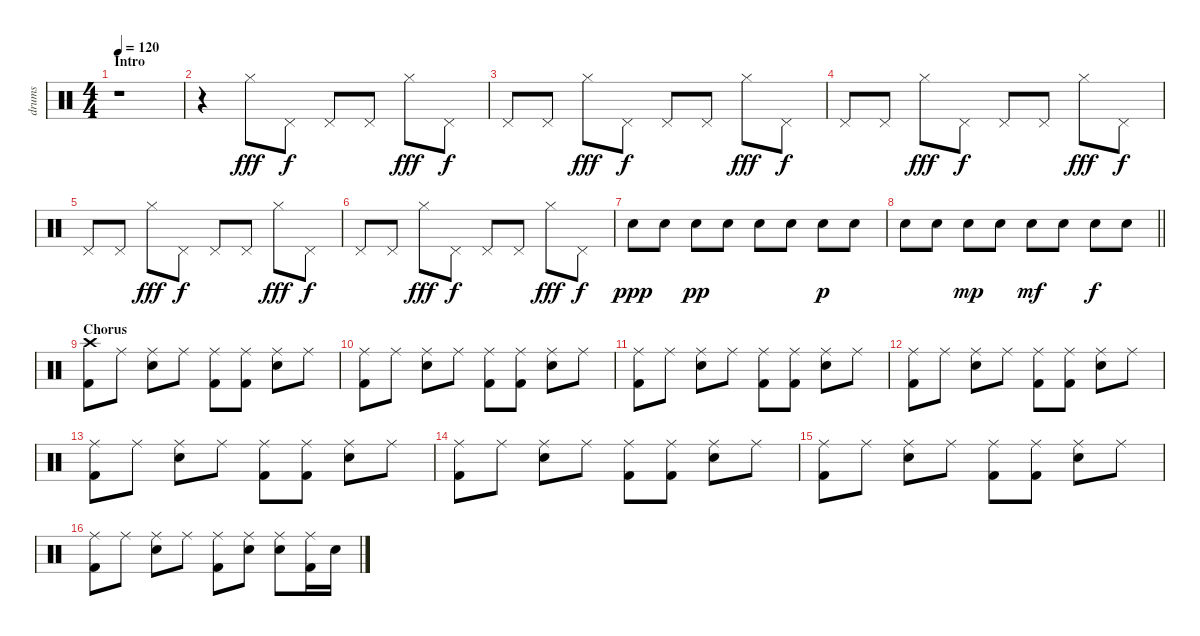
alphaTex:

\track ("drums" "drums") {instrument percussion}
\staff {score}
\articulation defaults
\ts (4 4)
\section ("" "Intro")
\tempo 120
\clef neutral
\ks c
r.1{dy fff} |
r.4 "Hi-Hat (closed)".8 "Pedal Hi-Hat (hit)".8{dy f} "Pedal Hi-Hat (hit)".8 "Pedal Hi-Hat (hit)".8 "Hi-Hat (closed)".8{dy fff} "Pedal Hi-Hat (hit)".8{dy f} |
"Pedal Hi-Hat (hit)".8 "Pedal Hi-Hat (hit)".8 "Hi-Hat (closed)".8{dy fff} "Pedal Hi-Hat (hit)".8{dy f} "Pedal Hi-Hat (hit)".8 "Pedal Hi-Hat (hit)".8 "Hi-Hat (closed)".8{dy fff} "Pedal Hi-Hat (hit)".8{dy f} |
"Pedal Hi-Hat (hit)".8 "Pedal Hi-Hat (hit)".8 "Hi-Hat (closed)".8{dy fff} "Pedal Hi-Hat (hit)".8{dy f} "Pedal Hi-Hat (hit)".8 "Pedal Hi-Hat (hit)".8 "Hi-Hat (closed)".8{dy fff} "Pedal Hi-Hat (hit)".8{dy f} |
"Pedal Hi-Hat (hit)".8 "Pedal Hi-Hat (hit)".8 "Hi-Hat (closed)".8{dy fff} "Pedal Hi-Hat (hit)".8{dy f} "Pedal Hi-Hat (hit)".8 "Pedal Hi-Hat (hit)".8 "Hi-Hat (closed)".8{dy fff} "Pedal Hi-Hat (hit)".8{dy f} |
"Pedal Hi-Hat (hit)".8 "Pedal Hi-Hat (hit)".8 "Hi-Hat (closed)".8{dy fff} "Pedal Hi-Hat (hit)".8{dy f} "Pedal Hi-Hat (hit)".8 "Pedal Hi-Hat (hit)".8 "Hi-Hat (closed)".8{dy fff} "Pedal Hi-Hat (hit)".8{dy f} |
"Snare (hit) 2".8{dy ppp} "Snare (hit) 2".8 "Snare (hit) 2".8{dy pp} "Snare (hit) 2".8 "Snare (hit) 2".8 "Snare (hit) 2".8 "Snare (hit) 2".8{dy p} "Snare (hit) 2".8 |
\barLineRight lightlight "Snare (hit) 2".8 "Snare (hit) 2".8 "Snare (hit) 2".8{dy mp} "Snare (hit) 2".8 "Snare (hit) 2".8{dy mf} "Snare (hit) 2".8 "Snare (hit) 2".8{dy f} "Snare (hit) 2".8
|
\section ("" "Chorus")
("Crash high (hit)" "Kick (hit) 2").8 "Ride (middle)".8 ("Ride (middle)" "Snare (hit) 2").8 "Ride (middle)".8 ("Ride (middle)" "Kick (hit) 2").8 ("Ride (middle)" "Kick (hit) 2").8 ("Ride (middle)" "Snare (hit) 2").8 "Ride (middle)".8 |
("Ride (middle)" "Kick (hit) 2").8 "Ride (middle)".8 ("Ride (middle)" "Snare (hit) 2").8 "Ride (middle)".8 ("Ride (middle)" "Kick (hit) 2").8 ("Ride (middle)" "Kick (hit) 2").8 ("Ride (middle)" "Snare (hit) 2").8 "Ride (middle)".8 |
("Ride (middle)" "Kick (hit) 2").8 "Ride (middle)".8 ("Ride (middle)" "Snare (hit) 2").8 "Ride (middle)".8 ("Ride (middle)" "Kick (hit) 2").8 ("Ride (middle)" "Kick (hit) 2").8 ("Ride (middle)" "Snare (hit) 2").8 "Ride (middle)".8 |
("Ride (middle)" "Kick (hit) 2").8 "Ride (middle)".8 ("Ride (middle)" "Snare (hit) 2").8 "Ride (middle)".8 ("Ride (middle)" "Kick (hit) 2").8 ("Ride (middle)" "Kick (hit) 2").8 ("Ride (middle)" "Snare (hit) 2").8 "Ride (middle)".8 |
("Ride (middle)" "Kick (hit) 2").8 "Ride (middle)".8 ("Ride (middle)" "Snare (hit) 2").8 "Ride (middle)".8 ("Ride (middle)" "Kick (hit) 2").8 ("Ride (middle)" "Kick (hit) 2").8 ("Ride (middle)" "Snare (hit) 2").8 "Ride (middle)".8 |
("Ride (middle)" "Kick (hit) 2").8 "Ride (middle)".8 ("Ride (middle)" "Snare (hit) 2").8 "Ride (middle)".8 ("Ride (middle)" "Kick (hit) 2").8 ("Ride (middle)" "Kick (hit) 2").8 ("Ride (middle)" "Snare (hit) 2").8 "Ride (middle)".8 |
("Ride (middle)" "Kick (hit) 2").8 "Ride (middle)".8 ("Ride (middle)" "Snare (hit) 2").8 "Ride (middle)".8 ("Ride (middle)" "Kick (hit) 2").8 ("Ride (middle)" "Kick (hit) 2").8 ("Ride (middle)" "Snare (hit) 2").8 "Ride (middle)".8 |
("Ride (middle)" "Kick (hit) 2").8 "Ride (middle)".8 ("Ride (middle)" "Snare (hit) 2").8 "Ride (middle)".8 ("Ride (middle)" "Kick (hit) 2").8 ("Ride (middle)" "Snare (hit) 2").8 ("Ride (middle)" "Snare (hit) 2").8 ("Ride (middle)" "Kick (hit) 2").16 "Snare (hit) 2".16
